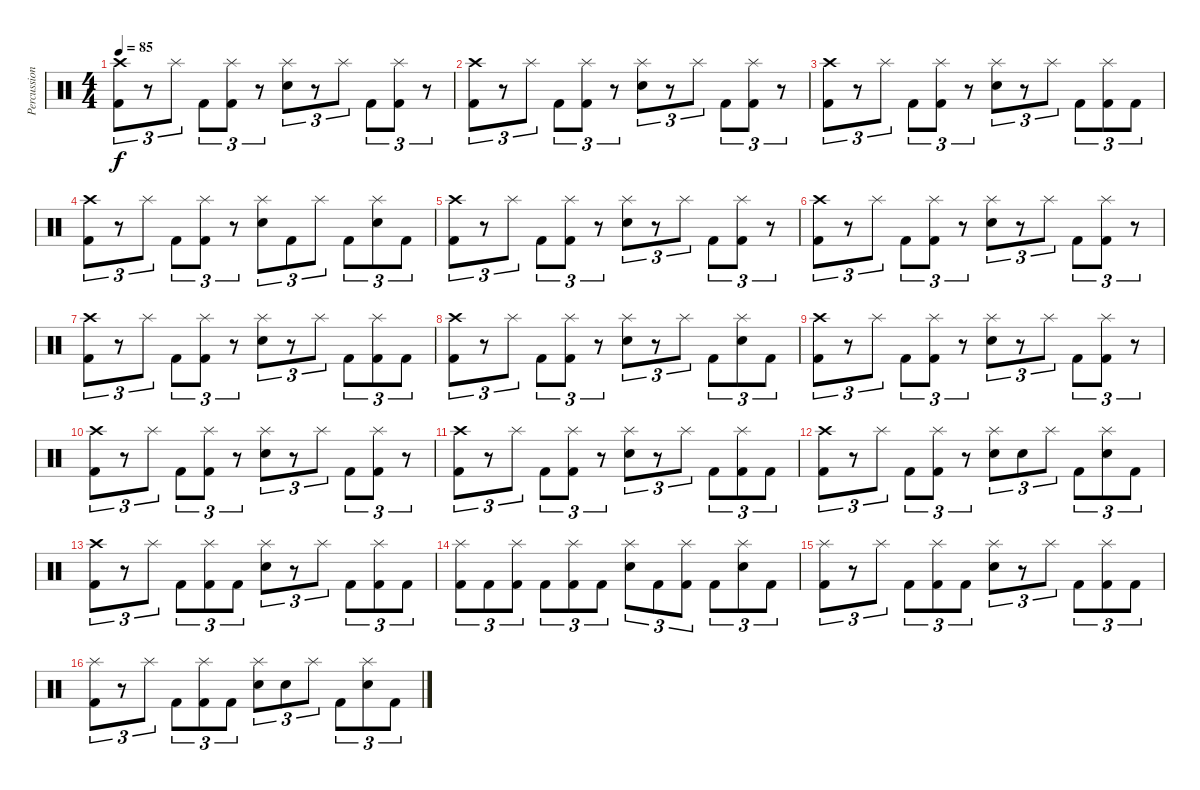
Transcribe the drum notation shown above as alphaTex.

\track ("Percussion" "Percussion") {instrument percussion}
\staff {score}
\articulation defaults
\ts (4 4)
\tempo 85
\clef neutral
\ks c
("Crash high (hit)" "Kick (hit) 2").8{tu (3 2) dy f} r.8{tu (3 2)} "Splash (hit)".8{tu (3 2)} "Kick (hit) 2".8{tu (3 2)} ("Splash (hit)" "Kick (hit) 2").8{tu (3 2)} r.8{tu (3 2)} ("Splash (hit)" "Electric Snare (hit)").8{tu (3 2)} r.8{tu (3 2)} "Splash (hit)".8{tu (3 2)} "Kick (hit) 2".8{tu (3 2)} ("Splash (hit)" "Kick (hit) 2").8{tu (3 2)} r.8{tu (3 2)} |
("Crash high (hit)" "Kick (hit) 2").8{tu (3 2)} r.8{tu (3 2)} "Splash (hit)".8{tu (3 2)} "Kick (hit) 2".8{tu (3 2)} ("Splash (hit)" "Kick (hit) 2").8{tu (3 2)} r.8{tu (3 2)} ("Splash (hit)" "Electric Snare (hit)").8{tu (3 2)} r.8{tu (3 2)} "Splash (hit)".8{tu (3 2)} "Kick (hit) 2".8{tu (3 2)} ("Splash (hit)" "Kick (hit) 2").8{tu (3 2)} r.8{tu (3 2)} |
("Crash high (hit)" "Kick (hit) 2").8{tu (3 2)} r.8{tu (3 2)} "Splash (hit)".8{tu (3 2)} "Kick (hit) 2".8{tu (3 2)} ("Splash (hit)" "Kick (hit) 2").8{tu (3 2)} r.8{tu (3 2)} ("Splash (hit)" "Electric Snare (hit)").8{tu (3 2)} r.8{tu (3 2)} "Splash (hit)".8{tu (3 2)} "Kick (hit) 2".8{tu (3 2)} ("Splash (hit)" "Kick (hit) 2").8{tu (3 2)} "Kick (hit) 2".8{tu (3 2)} |
("Crash high (hit)" "Kick (hit) 2").8{tu (3 2)} r.8{tu (3 2)} "Splash (hit)".8{tu (3 2)} "Kick (hit) 2".8{tu (3 2)} ("Splash (hit)" "Kick (hit) 2").8{tu (3 2)} r.8{tu (3 2)} ("Splash (hit)" "Electric Snare (hit)").8{tu (3 2)} "Kick (hit) 2".8{tu (3 2)} "Splash (hit)".8{tu (3 2)} "Kick (hit) 2".8{tu (3 2)} ("Splash (hit)" "Electric Snare (hit)").8{tu (3 2)} "Kick (hit) 2".8{tu (3 2)} |
("Crash high (hit)" "Kick (hit) 2").8{tu (3 2)} r.8{tu (3 2)} "Splash (hit)".8{tu (3 2)} "Kick (hit) 2".8{tu (3 2)} ("Splash (hit)" "Kick (hit) 2").8{tu (3 2)} r.8{tu (3 2)} ("Splash (hit)" "Electric Snare (hit)").8{tu (3 2)} r.8{tu (3 2)} "Splash (hit)".8{tu (3 2)} "Kick (hit) 2".8{tu (3 2)} ("Splash (hit)" "Kick (hit) 2").8{tu (3 2)} r.8{tu (3 2)} |
("Crash high (hit)" "Kick (hit) 2").8{tu (3 2)} r.8{tu (3 2)} "Splash (hit)".8{tu (3 2)} "Kick (hit) 2".8{tu (3 2)} ("Splash (hit)" "Kick (hit) 2").8{tu (3 2)} r.8{tu (3 2)} ("Splash (hit)" "Electric Snare (hit)").8{tu (3 2)} r.8{tu (3 2)} "Splash (hit)".8{tu (3 2)} "Kick (hit) 2".8{tu (3 2)} ("Splash (hit)" "Kick (hit) 2").8{tu (3 2)} r.8{tu (3 2)} |
("Crash high (hit)" "Kick (hit) 2").8{tu (3 2)} r.8{tu (3 2)} "Splash (hit)".8{tu (3 2)} "Kick (hit) 2".8{tu (3 2)} ("Splash (hit)" "Kick (hit) 2").8{tu (3 2)} r.8{tu (3 2)} ("Splash (hit)" "Electric Snare (hit)").8{tu (3 2)} r.8{tu (3 2)} "Splash (hit)".8{tu (3 2)} "Kick (hit) 2".8{tu (3 2)} ("Splash (hit)" "Kick (hit) 2").8{tu (3 2)} "Kick (hit) 2".8{tu (3 2)} |
("Crash high (hit)" "Kick (hit) 2").8{tu (3 2)} r.8{tu (3 2)} "Splash (hit)".8{tu (3 2)} "Kick (hit) 2".8{tu (3 2)} ("Splash (hit)" "Kick (hit) 2").8{tu (3 2)} r.8{tu (3 2)} ("Splash (hit)" "Electric Snare (hit)").8{tu (3 2)} r.8{tu (3 2)} "Splash (hit)".8{tu (3 2)} "Kick (hit) 2".8{tu (3 2)} ("Splash (hit)" "Electric Snare (hit)").8{tu (3 2)} "Kick (hit) 2".8{tu (3 2)} |
("Crash high (hit)" "Kick (hit) 2").8{tu (3 2)} r.8{tu (3 2)} "Splash (hit)".8{tu (3 2)} "Kick (hit) 2".8{tu (3 2)} ("Splash (hit)" "Kick (hit) 2").8{tu (3 2)} r.8{tu (3 2)} ("Splash (hit)" "Electric Snare (hit)").8{tu (3 2)} r.8{tu (3 2)} "Splash (hit)".8{tu (3 2)} "Kick (hit) 2".8{tu (3 2)} ("Splash (hit)" "Kick (hit) 2").8{tu (3 2)} r.8{tu (3 2)} |
("Crash high (hit)" "Kick (hit) 2").8{tu (3 2)} r.8{tu (3 2)} "Splash (hit)".8{tu (3 2)} "Kick (hit) 2".8{tu (3 2)} ("Splash (hit)" "Kick (hit) 2").8{tu (3 2)} r.8{tu (3 2)} ("Splash (hit)" "Electric Snare (hit)").8{tu (3 2)} r.8{tu (3 2)} "Splash (hit)".8{tu (3 2)} "Kick (hit) 2".8{tu (3 2)} ("Splash (hit)" "Kick (hit) 2").8{tu (3 2)} r.8{tu (3 2)} |
("Crash high (hit)" "Kick (hit) 2").8{tu (3 2)} r.8{tu (3 2)} "Splash (hit)".8{tu (3 2)} "Kick (hit) 2".8{tu (3 2)} ("Splash (hit)" "Kick (hit) 2").8{tu (3 2)} r.8{tu (3 2)} ("Splash (hit)" "Electric Snare (hit)").8{tu (3 2)} r.8{tu (3 2)} "Splash (hit)".8{tu (3 2)} "Kick (hit) 2".8{tu (3 2)} ("Splash (hit)" "Kick (hit) 2").8{tu (3 2)} "Kick (hit) 2".8{tu (3 2)} |
("Crash high (hit)" "Kick (hit) 2").8{tu (3 2)} r.8{tu (3 2)} "Splash (hit)".8{tu (3 2)} "Kick (hit) 2".8{tu (3 2)} ("Splash (hit)" "Kick (hit) 2").8{tu (3 2)} r.8{tu (3 2)} ("Splash (hit)" "Electric Snare (hit)").8{tu (3 2)} "Electric Snare (hit)".8{tu (3 2)} "Splash (hit)".8{tu (3 2)} "Kick (hit) 2".8{tu (3 2)} ("Splash (hit)" "Electric Snare (hit)").8{tu (3 2)} "Kick (hit) 2".8{tu (3 2)} |
("Crash high (hit)" "Kick (hit) 2").8{tu (3 2)} r.8{tu (3 2)} "Splash (hit)".8{tu (3 2)} "Kick (hit) 2".8{tu (3 2)} ("Splash (hit)" "Kick (hit) 2").8{tu (3 2)} "Kick (hit) 2".8{tu (3 2)} ("Splash (hit)" "Electric Snare (hit)").8{tu (3 2)} r.8{tu (3 2)} "Splash (hit)".8{tu (3 2)} "Kick (hit) 2".8{tu (3 2)} ("Splash (hit)" "Kick (hit) 2").8{tu (3 2)} "Kick (hit) 2".8{tu (3 2)} |
("Splash (hit)" "Kick (hit) 2").8{tu (3 2)} "Kick (hit) 2".8{tu (3 2)} ("Splash (hit)" "Kick (hit) 2").8{tu (3 2)} "Kick (hit) 2".8{tu (3 2)} ("Splash (hit)" "Kick (hit) 2").8{tu (3 2)} "Kick (hit) 2".8{tu (3 2)} ("Splash (hit)" "Electric Snare (hit)").8{tu (3 2)} "Kick (hit) 2".8{tu (3 2)} ("Splash (hit)" "Kick (hit) 2").8{tu (3 2)} "Kick (hit) 2".8{tu (3 2)} ("Splash (hit)" "Electric Snare (hit)").8{tu (3 2)} "Kick (hit) 2".8{tu (3 2)} |
("Splash (hit)" "Kick (hit) 2").8{tu (3 2)} r.8{tu (3 2)} "Splash (hit)".8{tu (3 2)} "Kick (hit) 2".8{tu (3 2)} ("Splash (hit)" "Kick (hit) 2").8{tu (3 2)} "Kick (hit) 2".8{tu (3 2)} ("Splash (hit)" "Electric Snare (hit)").8{tu (3 2)} r.8{tu (3 2)} "Splash (hit)".8{tu (3 2)} "Kick (hit) 2".8{tu (3 2)} ("Splash (hit)" "Kick (hit) 2").8{tu (3 2)} "Kick (hit) 2".8{tu (3 2)} |
("Splash (hit)" "Kick (hit) 2").8{tu (3 2)} r.8{tu (3 2)} "Splash (hit)".8{tu (3 2)} "Kick (hit) 2".8{tu (3 2)} ("Splash (hit)" "Kick (hit) 2").8{tu (3 2)} "Kick (hit) 2".8{tu (3 2)} ("Splash (hit)" "Electric Snare (hit)").8{tu (3 2)} "Electric Snare (hit)".8{tu (3 2)} "Splash (hit)".8{tu (3 2)} "Kick (hit) 2".8{tu (3 2)} ("Splash (hit)" "Electric Snare (hit)").8{tu (3 2)} "Kick (hit) 2".8{tu (3 2)}
